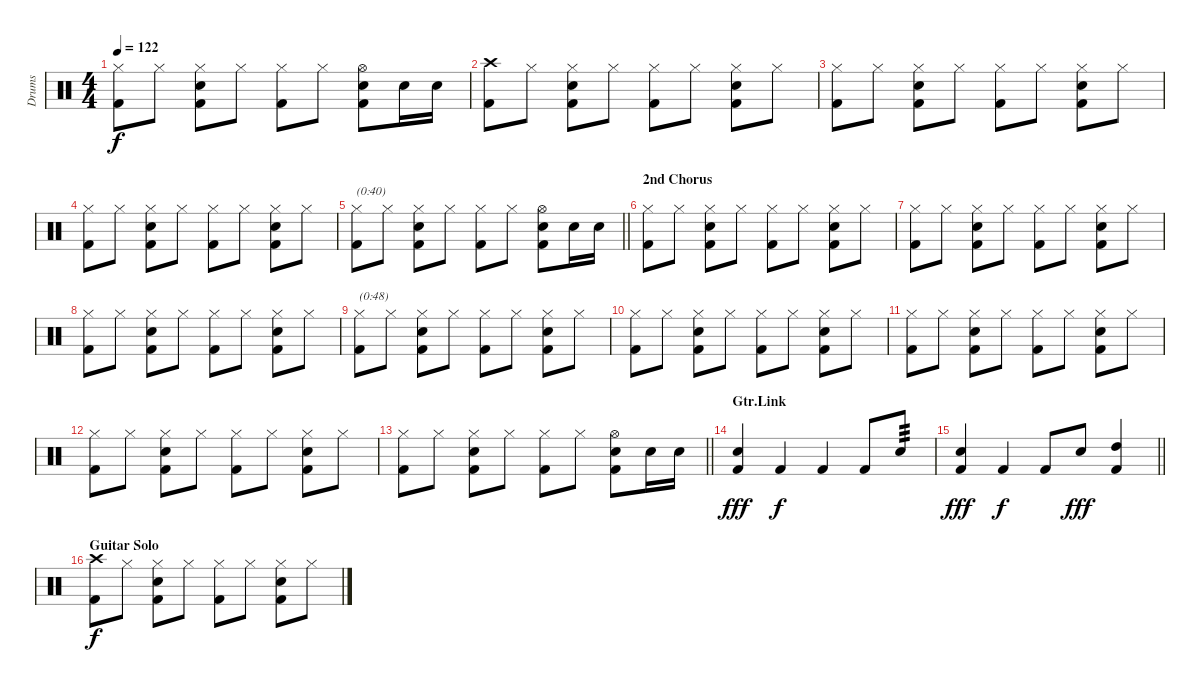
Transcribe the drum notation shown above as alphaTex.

\track ("Drums" "Drums") {instrument percussion}
\staff {score}
\articulation defaults
\ts (4 4)
\tempo 122
\clef neutral
\ks c
("Hi-Hat (closed)" "Kick (hit) 2").8{dy f} "Hi-Hat (closed)".8 ("Hi-Hat (closed)" "Electric Snare (hit)" "Kick (hit) 2").8 "Hi-Hat (closed)".8 ("Hi-Hat (closed)" "Kick (hit) 2").8 "Hi-Hat (closed)".8 ("Hi-Hat (open)" "Electric Snare (hit)" "Kick (hit) 2").8 "Electric Snare (hit)".16 "Electric Snare (hit)".16 |
("Crash high (hit)" "Kick (hit) 2").8 "Hi-Hat (closed)".8 ("Hi-Hat (closed)" "Electric Snare (hit)" "Kick (hit) 2").8 "Hi-Hat (closed)".8 ("Hi-Hat (closed)" "Kick (hit) 2").8 "Hi-Hat (closed)".8 ("Hi-Hat (closed)" "Electric Snare (hit)" "Kick (hit) 2").8 "Hi-Hat (closed)".8 |
("Hi-Hat (closed)" "Kick (hit) 2").8 "Hi-Hat (closed)".8 ("Hi-Hat (closed)" "Electric Snare (hit)" "Kick (hit) 2").8 "Hi-Hat (closed)".8 ("Hi-Hat (closed)" "Kick (hit) 2").8 "Hi-Hat (closed)".8 ("Hi-Hat (closed)" "Electric Snare (hit)" "Kick (hit) 2").8 "Hi-Hat (closed)".8 |
("Hi-Hat (closed)" "Kick (hit) 2").8 "Hi-Hat (closed)".8 ("Hi-Hat (closed)" "Electric Snare (hit)" "Kick (hit) 2").8 "Hi-Hat (closed)".8 ("Hi-Hat (closed)" "Kick (hit) 2").8 "Hi-Hat (closed)".8 ("Hi-Hat (closed)" "Electric Snare (hit)" "Kick (hit) 2").8 "Hi-Hat (closed)".8 |
\barLineRight lightlight
("Hi-Hat (closed)" "Kick (hit) 2").8{txt "(0:40)"} "Hi-Hat (closed)".8 ("Hi-Hat (closed)" "Electric Snare (hit)" "Kick (hit) 2").8 "Hi-Hat (closed)".8 ("Hi-Hat (closed)" "Kick (hit) 2").8 "Hi-Hat (closed)".8 ("Hi-Hat (open)" "Electric Snare (hit)" "Kick (hit) 2").8 "Electric Snare (hit)".16 "Electric Snare (hit)".16 |
\section ("" "2nd Chorus")
("Hi-Hat (closed)" "Kick (hit) 2").8 "Hi-Hat (closed)".8 ("Hi-Hat (closed)" "Electric Snare (hit)" "Kick (hit) 2").8 "Hi-Hat (closed)".8 ("Hi-Hat (closed)" "Kick (hit) 2").8 "Hi-Hat (closed)".8 ("Hi-Hat (closed)" "Electric Snare (hit)" "Kick (hit) 2").8 "Hi-Hat (closed)".8 |
("Hi-Hat (closed)" "Kick (hit) 2").8 "Hi-Hat (closed)".8 ("Hi-Hat (closed)" "Electric Snare (hit)" "Kick (hit) 2").8 "Hi-Hat (closed)".8 ("Hi-Hat (closed)" "Kick (hit) 2").8 "Hi-Hat (closed)".8 ("Hi-Hat (closed)" "Electric Snare (hit)" "Kick (hit) 2").8 "Hi-Hat (closed)".8 |
("Hi-Hat (closed)" "Kick (hit) 2").8 "Hi-Hat (closed)".8 ("Hi-Hat (closed)" "Electric Snare (hit)" "Kick (hit) 2").8 "Hi-Hat (closed)".8 ("Hi-Hat (closed)" "Kick (hit) 2").8 "Hi-Hat (closed)".8 ("Hi-Hat (closed)" "Electric Snare (hit)" "Kick (hit) 2").8 "Hi-Hat (closed)".8 |
("Hi-Hat (closed)" "Kick (hit) 2").8{txt "(0:48)"} "Hi-Hat (closed)".8 ("Hi-Hat (closed)" "Electric Snare (hit)" "Kick (hit) 2").8 "Hi-Hat (closed)".8 ("Hi-Hat (closed)" "Kick (hit) 2").8 "Hi-Hat (closed)".8 ("Hi-Hat (closed)" "Electric Snare (hit)" "Kick (hit) 2").8 "Hi-Hat (closed)".8 |
("Hi-Hat (closed)" "Kick (hit) 2").8 "Hi-Hat (closed)".8 ("Hi-Hat (closed)" "Electric Snare (hit)" "Kick (hit) 2").8 "Hi-Hat (closed)".8 ("Hi-Hat (closed)" "Kick (hit) 2").8 "Hi-Hat (closed)".8 ("Hi-Hat (closed)" "Electric Snare (hit)" "Kick (hit) 2").8 "Hi-Hat (closed)".8 |
("Hi-Hat (closed)" "Kick (hit) 2").8 "Hi-Hat (closed)".8 ("Hi-Hat (closed)" "Electric Snare (hit)" "Kick (hit) 2").8 "Hi-Hat (closed)".8 ("Hi-Hat (closed)" "Kick (hit) 2").8 "Hi-Hat (closed)".8 ("Hi-Hat (closed)" "Electric Snare (hit)" "Kick (hit) 2").8 "Hi-Hat (closed)".8 |
("Hi-Hat (closed)" "Kick (hit) 2").8 "Hi-Hat (closed)".8 ("Hi-Hat (closed)" "Electric Snare (hit)" "Kick (hit) 2").8 "Hi-Hat (closed)".8 ("Hi-Hat (closed)" "Kick (hit) 2").8 "Hi-Hat (closed)".8 ("Hi-Hat (closed)" "Electric Snare (hit)" "Kick (hit) 2").8 "Hi-Hat (closed)".8 |
\barLineRight lightlight
("Hi-Hat (closed)" "Kick (hit) 2").8 "Hi-Hat (closed)".8 ("Hi-Hat (closed)" "Electric Snare (hit)" "Kick (hit) 2").8 "Hi-Hat (closed)".8 ("Hi-Hat (closed)" "Kick (hit) 2").8 "Hi-Hat (closed)".8 ("Hi-Hat (open)" "Electric Snare (hit)" "Kick (hit) 2").8 "Electric Snare (hit)".16 "Electric Snare (hit)".16 |
\section ("" "Gtr.Link")
("Electric Snare (hit)" "Kick (hit) 2").4{dy fff} "Kick (hit) 2".4{dy f} "Kick (hit) 2".4 "Kick (hit) 2".8 "Electric Snare (hit)".8{tp 3} |
\barLineRight lightlight
("Electric Snare (hit)" "Kick (hit) 2").4{dy fff} "Kick (hit) 2".4{dy f} "Kick (hit) 2".8 "Electric Snare (hit)".8{dy fff} ("High Tom (hit)" "Kick (hit) 2").4 |
\section ("" "Guitar Solo")
("Crash high (hit)" "Kick (hit) 2").8{dy f} "Hi-Hat (closed)".8 ("Hi-Hat (closed)" "Electric Snare (hit)" "Kick (hit) 2").8 "Hi-Hat (closed)".8 ("Hi-Hat (closed)" "Kick (hit) 2").8 "Hi-Hat (closed)".8 ("Hi-Hat (closed)" "Electric Snare (hit)" "Kick (hit) 2").8 "Hi-Hat (closed)".8
